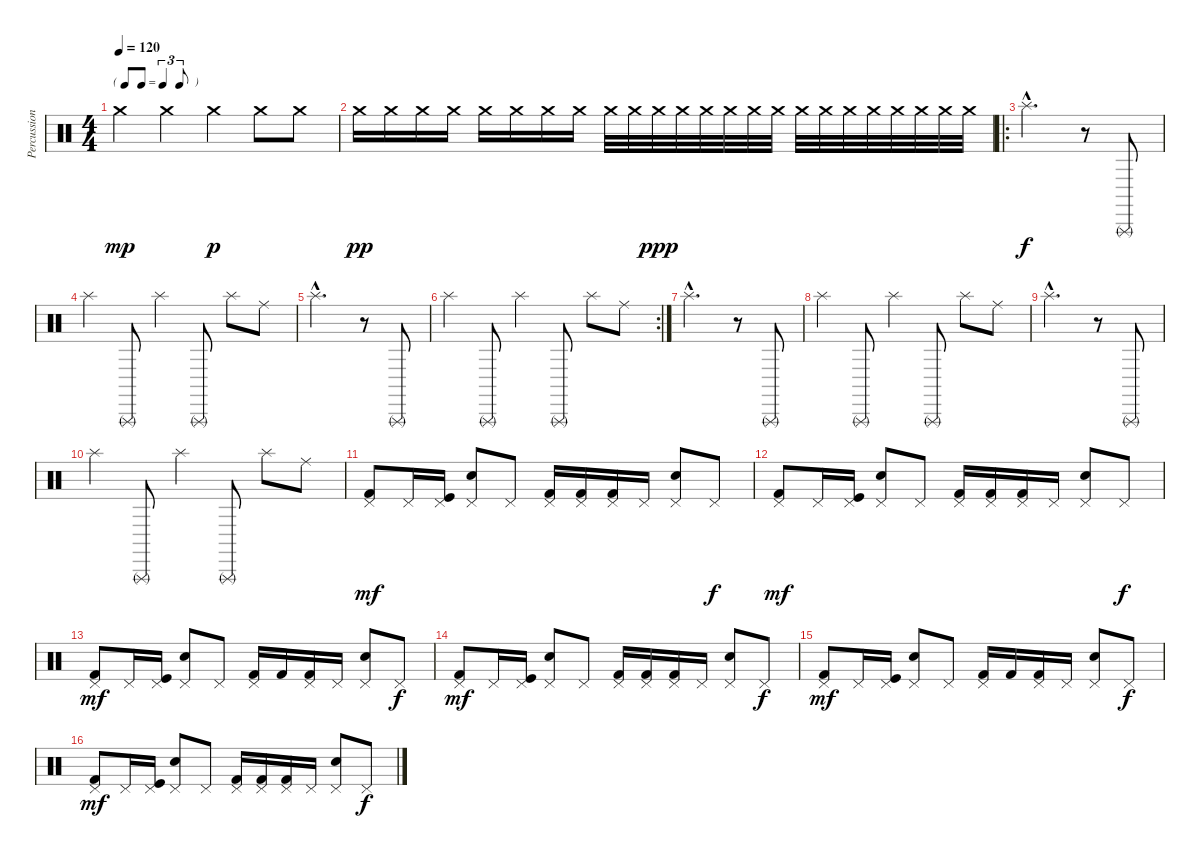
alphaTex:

\track ("Percussions" "Percussion") {instrument percussion}
\staff {score}
\articulation defaults
\ts (4 4)
\tf triplet8th
\tempo 120
\clef neutral
\ks c "Crash medium (hit)".4{dy mp} "Crash medium (hit)".4 "Crash medium (hit)".4{dy p} "Crash medium (hit)".8 "Crash medium (hit)".8
|
"Crash medium (hit)".16{dy pp} "Crash medium (hit)".16 "Crash medium (hit)".16 "Crash medium (hit)".16 "Crash medium (hit)".16 "Crash medium (hit)".16 "Crash medium (hit)".16 "Crash medium (hit)".16 "Crash medium (hit)".32 "Crash medium (hit)".32 "Crash medium (hit)".32{dy ppp} "Crash medium (hit)".32 "Crash medium (hit)".32 "Crash medium (hit)".32 "Crash medium (hit)".32 "Crash medium (hit)".32 "Crash medium (hit)".32 "Crash medium (hit)".32 "Crash medium (hit)".32 "Crash medium (hit)".32 "Crash medium (hit)".32 "Crash medium (hit)".32 "Crash medium (hit)".32 "Crash medium (hit)".32 |
\ro "Splash (hit)"{hac}.2{d dy f}
r.8 "Triangle (rnute)".8 |
"Splash (hit)".4 "Triangle (rnute)".8 "Splash (hit)".4 "Triangle (rnute)".8 "Splash (hit)".8 "Ride (middle)".8 |
"Splash (hit)"{hac}.2{d} r.8 "Triangle (rnute)".8 |
\rc 2 "Splash (hit)".4 "Triangle (rnute)".8 "Splash (hit)".4 "Triangle (rnute)".8 "Splash (hit)".8 "Ride (middle)".8
|
"Splash (hit)"{hac}.2{d} r.8 "Triangle (rnute)".8 |
"Splash (hit)".4 "Triangle (rnute)".8 "Splash (hit)".4 "Triangle (rnute)".8 "Splash (hit)".8 "Ride (middle)".8 |
"Splash (hit)"{hac}.2{d} r.8 "Triangle (rnute)".8 |
"Splash (hit)".4 "Triangle (rnute)".8 "Splash (hit)".4 "Triangle (rnute)".8 "Splash (hit)".8 "Ride (middle)".8 |
("Kick (hit) 2" "Pedal Hi-Hat (hit)").8{dy mf} "Pedal Hi-Hat (hit)".16 ("Kick (hit)" "Pedal Hi-Hat (hit)").16 ("Electric Snare (hit)" "Pedal Hi-Hat (hit)").8 "Pedal Hi-Hat (hit)".8 ("Kick (hit) 2" "Pedal Hi-Hat (hit)").16 ("Kick (hit) 2" "Pedal Hi-Hat (hit)").16 ("Kick (hit) 2" "Pedal Hi-Hat (hit)").16 "Pedal Hi-Hat (hit)".16 ("Electric Snare (hit)" "Pedal Hi-Hat (hit)").8 "Pedal Hi-Hat (hit)".8{dy f} |
("Kick (hit) 2" "Pedal Hi-Hat (hit)").8{dy mf} "Pedal Hi-Hat (hit)".16 ("Kick (hit)" "Pedal Hi-Hat (hit)").16 ("Electric Snare (hit)" "Pedal Hi-Hat (hit)").8 "Pedal Hi-Hat (hit)".8 ("Kick (hit) 2" "Pedal Hi-Hat (hit)").16 ("Kick (hit) 2" "Pedal Hi-Hat (hit)").16 ("Kick (hit) 2" "Pedal Hi-Hat (hit)").16 "Pedal Hi-Hat (hit)".16 ("Electric Snare (hit)" "Pedal Hi-Hat (hit)").8 "Pedal Hi-Hat (hit)".8{dy f} |
("Kick (hit) 2" "Pedal Hi-Hat (hit)").8{dy mf} "Pedal Hi-Hat (hit)".16 ("Kick (hit)" "Pedal Hi-Hat (hit)").16 ("Electric Snare (hit)" "Pedal Hi-Hat (hit)").8 "Pedal Hi-Hat (hit)".8 ("Kick (hit) 2" "Pedal Hi-Hat (hit)").16 "Kick (hit) 2".16 ("Kick (hit) 2" "Pedal Hi-Hat (hit)").16 "Pedal Hi-Hat (hit)".16 ("Electric Snare (hit)" "Pedal Hi-Hat (hit)").8 "Pedal Hi-Hat (hit)".8{dy f} |
("Kick (hit) 2" "Pedal Hi-Hat (hit)").8{dy mf} "Pedal Hi-Hat (hit)".16 ("Kick (hit)" "Pedal Hi-Hat (hit)").16 ("Electric Snare (hit)" "Pedal Hi-Hat (hit)").8 "Pedal Hi-Hat (hit)".8 ("Kick (hit) 2" "Pedal Hi-Hat (hit)").16 ("Kick (hit) 2" "Pedal Hi-Hat (hit)").16 ("Kick (hit) 2" "Pedal Hi-Hat (hit)").16 "Pedal Hi-Hat (hit)".16 ("Electric Snare (hit)" "Pedal Hi-Hat (hit)").8 "Pedal Hi-Hat (hit)".8{dy f} |
("Kick (hit) 2" "Pedal Hi-Hat (hit)").8{dy mf} "Pedal Hi-Hat (hit)".16 ("Kick (hit)" "Pedal Hi-Hat (hit)").16 ("Electric Snare (hit)" "Pedal Hi-Hat (hit)").8 "Pedal Hi-Hat (hit)".8 ("Kick (hit) 2" "Pedal Hi-Hat (hit)").16 "Kick (hit) 2".16 ("Kick (hit) 2" "Pedal Hi-Hat (hit)").16 "Pedal Hi-Hat (hit)".16 ("Electric Snare (hit)" "Pedal Hi-Hat (hit)").8 "Pedal Hi-Hat (hit)".8{dy f} |
("Kick (hit) 2" "Pedal Hi-Hat (hit)").8{dy mf} "Pedal Hi-Hat (hit)".16 ("Kick (hit)" "Pedal Hi-Hat (hit)").16 ("Electric Snare (hit)" "Pedal Hi-Hat (hit)").8 "Pedal Hi-Hat (hit)".8 ("Kick (hit) 2" "Pedal Hi-Hat (hit)").16 ("Kick (hit) 2" "Pedal Hi-Hat (hit)").16 ("Kick (hit) 2" "Pedal Hi-Hat (hit)").16 "Pedal Hi-Hat (hit)".16 ("Electric Snare (hit)" "Pedal Hi-Hat (hit)").8 "Pedal Hi-Hat (hit)".8{dy f}
